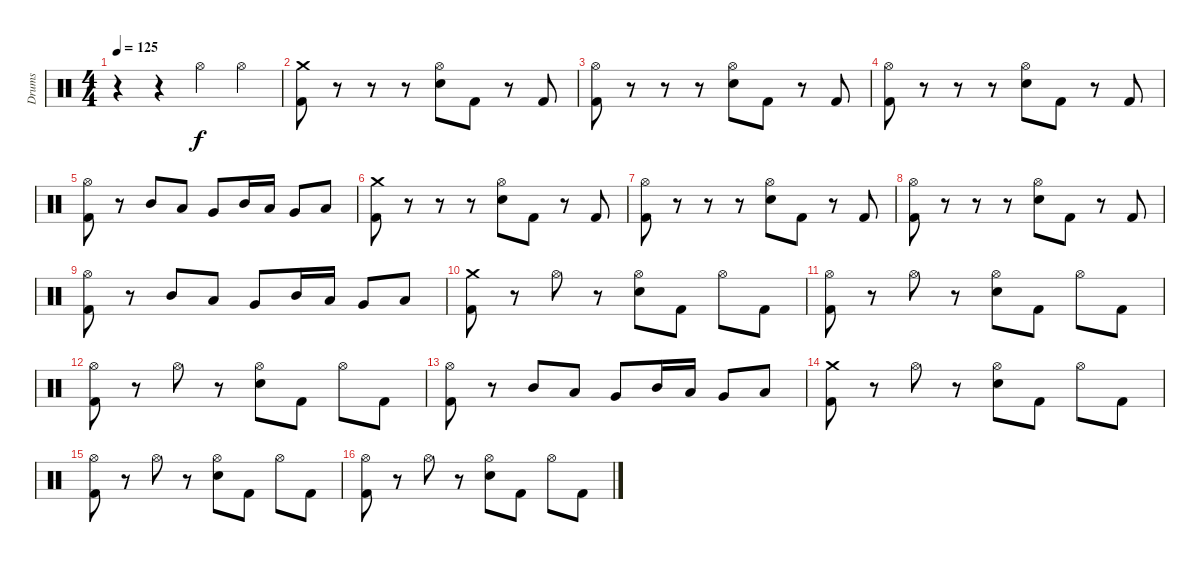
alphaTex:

\track ("Drums" "Drums") {instrument percussion}
\staff {score}
\articulation defaults
\ts (4 4)
\tempo 125
\clef neutral
\ks c
r.4{dy f} r.4 "Hi-Hat (open)".4 "Hi-Hat (open)".4 |
("Crash medium (hit)" "Kick (hit) 2").8 r.8 r.8 r.8 ("Hi-Hat (open)" "Electric Snare (hit)").8 "Kick (hit) 2".8 r.8 "Kick (hit) 2".8 |
("Hi-Hat (open)" "Kick (hit) 2").8 r.8 r.8 r.8 ("Hi-Hat (open)" "Electric Snare (hit)").8 "Kick (hit) 2".8 r.8 "Kick (hit) 2".8 |
("Hi-Hat (open)" "Kick (hit) 2").8 r.8 r.8 r.8 ("Hi-Hat (open)" "Electric Snare (hit)").8 "Kick (hit) 2".8 r.8 "Kick (hit) 2".8 |
("Hi-Hat (open)" "Kick (hit) 2").8 r.8 "Mid Tom (hit)".8 "Low Tom (hit)".8 "Very Low Tom (hit)".8 "Mid Tom (hit)".16 "Low Tom (hit)".16 "Very Low Tom (hit)".8 "Low Floor Tom (hit)".8 |
("Crash medium (hit)" "Kick (hit) 2").8 r.8 r.8 r.8 ("Hi-Hat (open)" "Electric Snare (hit)").8 "Kick (hit) 2".8 r.8 "Kick (hit) 2".8 |
("Hi-Hat (open)" "Kick (hit) 2").8 r.8 r.8 r.8 ("Hi-Hat (open)" "Electric Snare (hit)").8 "Kick (hit) 2".8 r.8 "Kick (hit) 2".8 |
("Hi-Hat (open)" "Kick (hit) 2").8 r.8 r.8 r.8 ("Hi-Hat (open)" "Electric Snare (hit)").8 "Kick (hit) 2".8 r.8 "Kick (hit) 2".8 |
("Hi-Hat (open)" "Kick (hit) 2").8 r.8 "Mid Tom (hit)".8 "Low Tom (hit)".8 "Very Low Tom (hit)".8 "Mid Tom (hit)".16 "Low Tom (hit)".16 "Very Low Tom (hit)".8 "Low Floor Tom (hit)".8 |
("Crash medium (hit)" "Kick (hit) 2").8 r.8 "Hi-Hat (open)".8 r.8 ("Hi-Hat (open)" "Electric Snare (hit)").8 "Kick (hit) 2".8 "Hi-Hat (open)".8 "Kick (hit) 2".8 |
("Hi-Hat (open)" "Kick (hit) 2").8 r.8 "Hi-Hat (open)".8 r.8 ("Hi-Hat (open)" "Electric Snare (hit)").8 "Kick (hit) 2".8 "Hi-Hat (open)".8 "Kick (hit) 2".8 |
("Hi-Hat (open)" "Kick (hit) 2").8 r.8 "Hi-Hat (open)".8 r.8 ("Hi-Hat (open)" "Electric Snare (hit)").8 "Kick (hit) 2".8 "Hi-Hat (open)".8 "Kick (hit) 2".8 |
("Hi-Hat (open)" "Kick (hit) 2").8 r.8 "Mid Tom (hit)".8 "Low Tom (hit)".8 "Very Low Tom (hit)".8 "Mid Tom (hit)".16 "Low Tom (hit)".16 "Very Low Tom (hit)".8 "Low Floor Tom (hit)".8 |
("Crash medium (hit)" "Kick (hit) 2").8 r.8 "Hi-Hat (open)".8 r.8 ("Hi-Hat (open)" "Electric Snare (hit)").8 "Kick (hit) 2".8 "Hi-Hat (open)".8 "Kick (hit) 2".8 |
("Hi-Hat (open)" "Kick (hit) 2").8 r.8 "Hi-Hat (open)".8 r.8 ("Hi-Hat (open)" "Electric Snare (hit)").8 "Kick (hit) 2".8 "Hi-Hat (open)".8 "Kick (hit) 2".8 |
("Hi-Hat (open)" "Kick (hit) 2").8 r.8 "Hi-Hat (open)".8 r.8 ("Hi-Hat (open)" "Electric Snare (hit)").8 "Kick (hit) 2".8 "Hi-Hat (open)".8 "Kick (hit) 2".8
